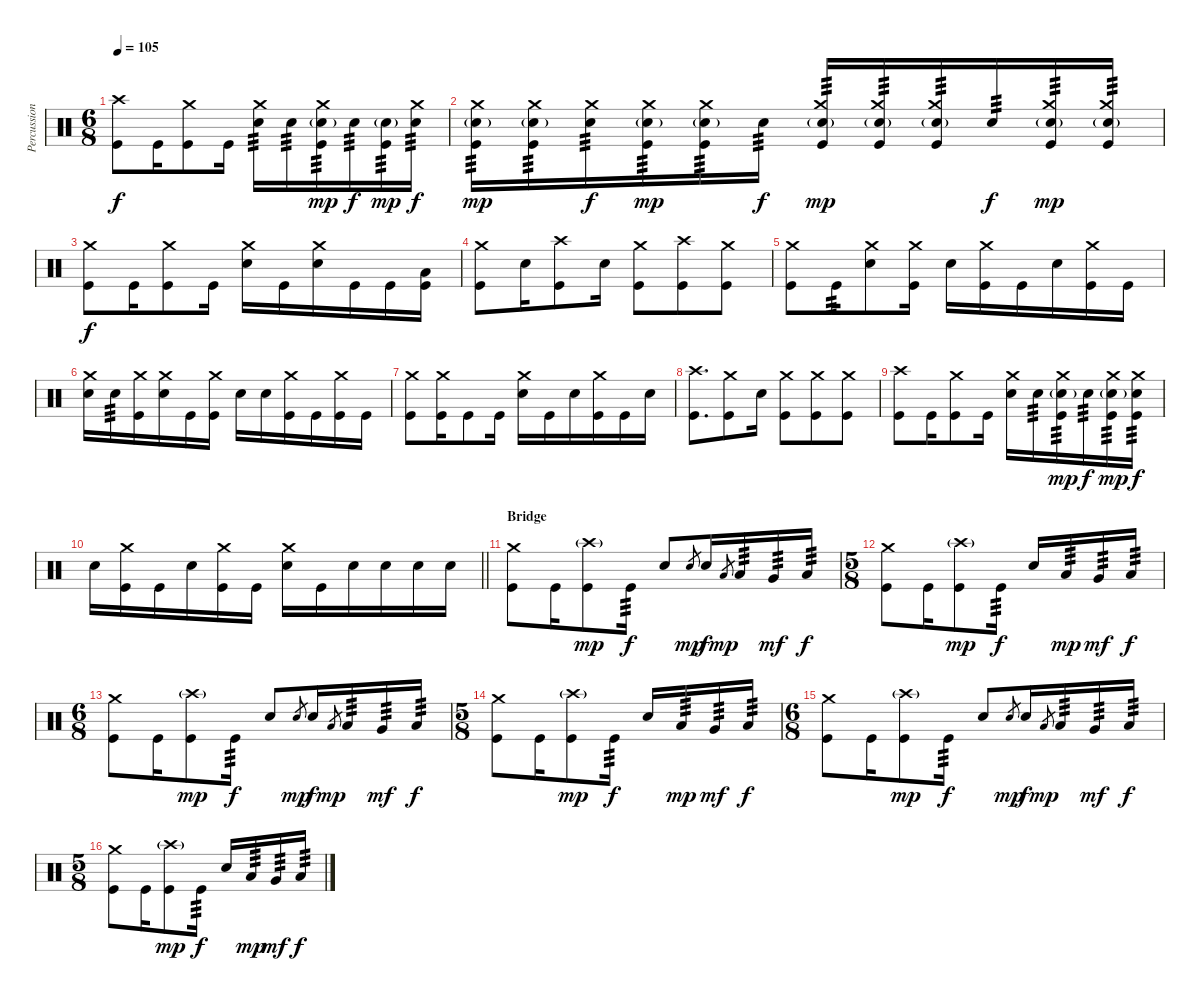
\track ("Percussion" "Percussion") {instrument percussion}
\staff {score}
\articulation defaults
\ts (6 8)
\tempo 105
\clef neutral
\ks c
("Crash high (hit)" "Kick (hit)").8{dy f} "Kick (hit)".16 ("Crash medium (hit)" "Kick (hit)").8 "Kick (hit)".16 ("Crash medium (hit)" "Snare (hit) 2").16{tp 3} "Snare (hit) 2".16{tp 3} ("Crash medium (hit)" "Snare (hit) 2"{g} "Kick (hit)").16{tp 3 dy mp} "Snare (hit) 2".16{tp 3 dy f} ("Snare (hit) 2"{g} "Kick (hit)").16{tp 3 dy mp} ("Crash medium (hit)" "Snare (hit) 2").16{tp 3 dy f} |
("Crash medium (hit)" "Snare (hit) 2"{g} "Kick (hit)").16{tp 3 dy mp} ("Crash medium (hit)" "Snare (hit) 2"{g} "Kick (hit)").16{tp 3} ("Crash medium (hit)" "Snare (hit) 2").16{tp 3 dy f} ("Crash medium (hit)" "Snare (hit) 2"{g} "Kick (hit)").16{tp 3 dy mp} ("Crash medium (hit)" "Snare (hit) 2"{g} "Kick (hit)").16{tp 3} "Snare (hit) 2".16{tp 3 dy f} ("Crash medium (hit)" "Snare (hit) 2"{g} "Kick (hit)").16{tp 3 dy mp} ("Crash medium (hit)" "Snare (hit) 2"{g} "Kick (hit)").16{tp 3} ("Crash medium (hit)" "Snare (hit) 2"{g} "Kick (hit)").16{tp 3} "Snare (hit) 2".16{tp 3 dy f} ("Crash medium (hit)" "Snare (hit) 2"{g} "Kick (hit)").16{tp 3 dy mp} ("Crash medium (hit)" "Snare (hit) 2"{g} "Kick (hit)").16{tp 3} |
("Crash medium (hit)" "Kick (hit)").8{dy f} "Kick (hit)".16 ("Crash medium (hit)" "Kick (hit)").8 "Kick (hit)".16 ("Crash medium (hit)" "Snare (hit) 2").16 "Kick (hit)".16 ("Crash medium (hit)" "Snare (hit) 2").16 "Kick (hit)".16 "Kick (hit)".16 ("Low Floor Tom (hit)" "Kick (hit)").16 |
("Crash medium (hit)" "Kick (hit)").8 "Snare (hit) 2".16 ("Crash high (hit)" "Kick (hit)").8 "Snare (hit) 2".16 ("Crash medium (hit)" "Kick (hit)").8 ("Crash high (hit)" "Kick (hit)").8 ("Crash medium (hit)" "Kick (hit)").8 |
("Crash medium (hit)" "Kick (hit)").8 "Kick (hit)".16{tp 3} ("Crash medium (hit)" "Snare (hit) 2").8 ("Crash medium (hit)" "Kick (hit)").16 "Snare (hit) 2".16 ("Crash medium (hit)" "Kick (hit)").16 "Kick (hit)".16 "Snare (hit) 2".16 ("Crash medium (hit)" "Kick (hit)").16 "Kick (hit)".16 |
("Crash medium (hit)" "Snare (hit) 2").16 "Snare (hit) 2".16{tp 3} ("Crash medium (hit)" "Kick (hit)").16 ("Crash medium (hit)" "Snare (hit) 2").16 "Kick (hit)".16 ("Crash medium (hit)" "Kick (hit)").16 "Snare (hit) 2".16 "Snare (hit) 2".16 ("Crash medium (hit)" "Kick (hit)").16 "Kick (hit)".16 ("Crash medium (hit)" "Kick (hit)").16 "Kick (hit)".16 |
("Crash medium (hit)" "Kick (hit)").8 ("Crash medium (hit)" "Kick (hit)").16 "Kick (hit)".8 "Kick (hit)".16 ("Crash medium (hit)" "Snare (hit) 2").16 "Kick (hit)".16 "Snare (hit) 2".16 ("Crash medium (hit)" "Kick (hit)").16 "Kick (hit)".16 "Snare (hit) 2".16 |
("Crash high (hit)" "Kick (hit)").8{d} ("Crash medium (hit)" "Kick (hit)").8 "Snare (hit) 2".16 ("Crash medium (hit)" "Kick (hit)").8 ("Crash medium (hit)" "Kick (hit)").8 ("Crash medium (hit)" "Kick (hit)").8 |
("Crash high (hit)" "Kick (hit)").8 "Kick (hit)".16 ("Crash medium (hit)" "Kick (hit)").8 "Kick (hit)".16 ("Crash medium (hit)" "Snare (hit) 2").16 "Snare (hit) 2".16{tp 3} ("Crash medium (hit)" "Snare (hit) 2"{g} "Kick (hit)").16{tp 3 dy mp} "Snare (hit) 2".16{tp 3 dy f} ("Crash medium (hit)" "Snare (hit) 2"{g} "Kick (hit)").16{tp 3 dy mp} ("Crash medium (hit)" "Snare (hit) 2" "Kick (hit)").16{tp 3 dy f} |
\barLineRight lightlight "Snare (hit) 2".16
("Crash medium (hit)" "Kick (hit)").16 "Kick (hit)".16 "Snare (hit) 2".16 ("Crash medium (hit)" "Kick (hit)").16 "Kick (hit)".16 ("Crash medium (hit)" "Snare (hit) 2").16 "Kick (hit)".16 "Snare (hit) 2".16 "Snare (hit) 2".16 "Snare (hit) 2".16 "Snare (hit) 2".16 |
\section ("" "Bridge")
("Crash medium (hit)" "Kick (hit)").8 "Kick (hit)".16 ("Crash high (hit)"{g} "Kick (hit)").8{dy mp} "Kick (hit)".16{tp 3 dy f} "Snare (hit) 2".8 "Snare (hit) 2".8{gr dy mp} "Snare (hit) 2".16{dy f} "Low Tom (hit)".8{gr dy mp} "Low Tom (hit)".16{tp 3} "Very Low Tom (hit)".16{tp 3 dy mf} "Low Floor Tom (hit)".16{tp 3 dy f} |
\ts (5 8)
("Crash medium (hit)" "Kick (hit)").8 "Kick (hit)".16 ("Crash high (hit)"{g} "Kick (hit)").8{dy mp} "Kick (hit)".16{tp 3 dy f} "Snare (hit) 2".16 "Low Tom (hit)".16{tp 3 dy mp} "Very Low Tom (hit)".16{tp 3 dy mf} "Low Floor Tom (hit)".16{tp 3 dy f} |
\ts (6 8)
("Crash medium (hit)" "Kick (hit)").8 "Kick (hit)".16 ("Crash high (hit)"{g} "Kick (hit)").8{dy mp} "Kick (hit)".16{tp 3 dy f} "Snare (hit) 2".8 "Snare (hit) 2".8{gr dy mp} "Snare (hit) 2".16{dy f} "Low Tom (hit)".8{gr dy mp} "Low Tom (hit)".16{tp 3} "Very Low Tom (hit)".16{tp 3 dy mf} "Low Floor Tom (hit)".16{tp 3 dy f} |
\ts (5 8)
("Crash medium (hit)" "Kick (hit)").8 "Kick (hit)".16 ("Crash high (hit)"{g} "Kick (hit)").8{dy mp} "Kick (hit)".16{tp 3 dy f} "Snare (hit) 2".16 "Low Tom (hit)".16{tp 3 dy mp} "Very Low Tom (hit)".16{tp 3 dy mf} "Low Floor Tom (hit)".16{tp 3 dy f} |
\ts (6 8)
("Crash medium (hit)" "Kick (hit)").8 "Kick (hit)".16 ("Crash high (hit)"{g} "Kick (hit)").8{dy mp} "Kick (hit)".16{tp 3 dy f} "Snare (hit) 2".8 "Snare (hit) 2".8{gr dy mp} "Snare (hit) 2".16{dy f} "Low Tom (hit)".8{gr dy mp} "Low Tom (hit)".16{tp 3} "Very Low Tom (hit)".16{tp 3 dy mf} "Low Floor Tom (hit)".16{tp 3 dy f} |
\ts (5 8)
("Crash medium (hit)" "Kick (hit)").8 "Kick (hit)".16 ("Crash high (hit)"{g} "Kick (hit)").8{dy mp} "Kick (hit)".16{tp 3 dy f} "Snare (hit) 2".16 "Low Tom (hit)".16{tp 3 dy mp} "Very Low Tom (hit)".16{tp 3 dy mf} "Low Floor Tom (hit)".16{tp 3 dy f}
